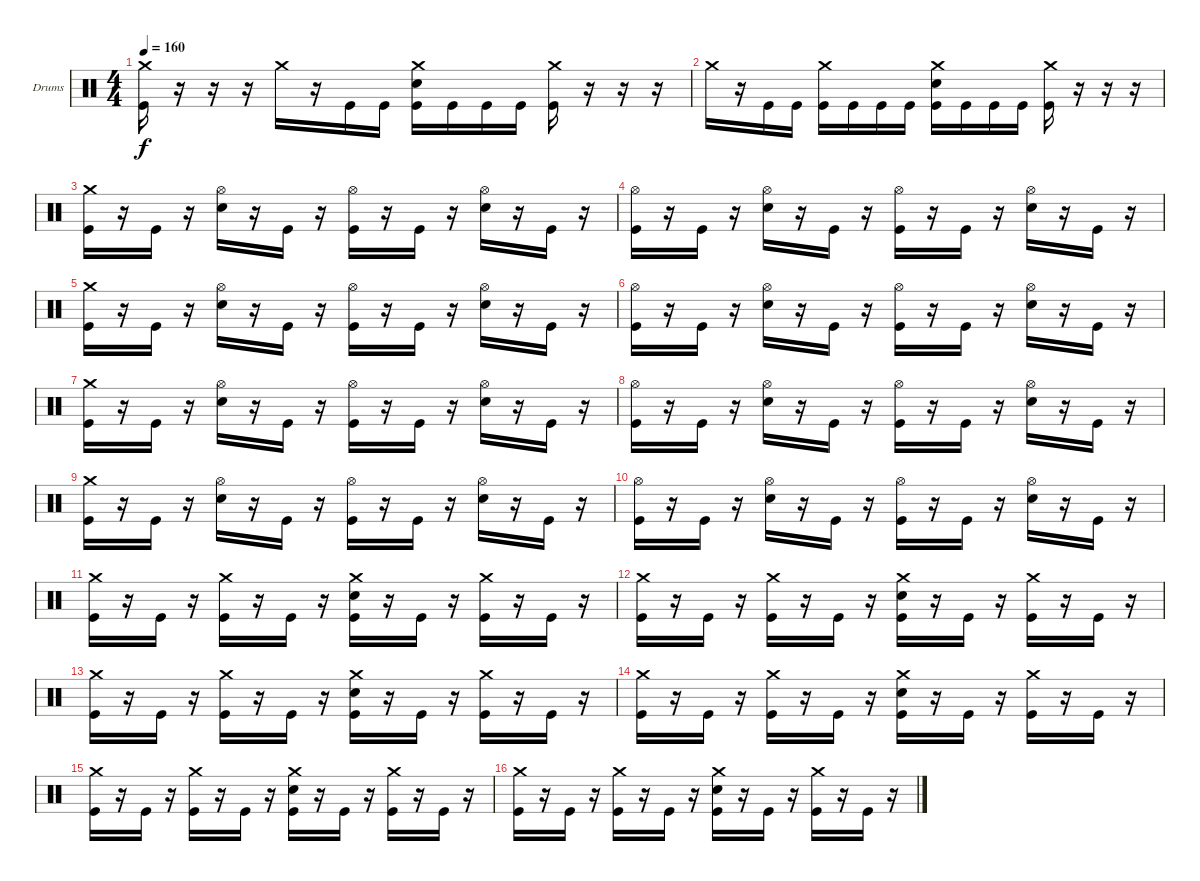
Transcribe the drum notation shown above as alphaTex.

\bracketExtendMode groupsimilarinstruments
\firstSystemTrackNameOrientation horizontal
\otherSystemsTrackNameOrientation horizontal
\track ("Drumkit" "Drums") {instrument percussion}
\staff {score}
\articulation defaults
\ts (4 4)
\tempo 160
\clef neutral
\ks c
("Crash medium (hit)" "Kick (hit)").16{dy f} r.16 r.16 r.16 "Crash medium (hit)".16 r.16 "Kick (hit)".16 "Kick (hit)".16 ("Crash medium (hit)" "Snare (hit) 2" "Kick (hit)").16 "Kick (hit)".16 "Kick (hit)".16 "Kick (hit)".16 ("Crash medium (hit)" "Kick (hit)").16 r.16 r.16 r.16 |
"Crash medium (hit)".16 r.16 "Kick (hit)".16 "Kick (hit)".16 ("Crash medium (hit)" "Kick (hit)").16 "Kick (hit)".16 "Kick (hit)".16 "Kick (hit)".16 ("Crash medium (hit)" "Snare (hit) 2" "Kick (hit)").16 "Kick (hit)".16 "Kick (hit)".16 "Kick (hit)".16 ("Crash medium (hit)" "Kick (hit)").16 r.16 r.16 r.16 |
("Crash medium (hit)" "Kick (hit)").16 r.16 "Kick (hit)".16 r.16 ("Hi-Hat (open)" "Snare (hit) 2").16 r.16 "Kick (hit)".16 r.16 ("Hi-Hat (open)" "Kick (hit)").16 r.16 "Kick (hit)".16 r.16 ("Hi-Hat (open)" "Snare (hit) 2").16 r.16 "Kick (hit)".16 r.16 |
("Hi-Hat (open)" "Kick (hit)").16 r.16 "Kick (hit)".16 r.16 ("Hi-Hat (open)" "Snare (hit) 2").16 r.16 "Kick (hit)".16 r.16 ("Hi-Hat (open)" "Kick (hit)").16 r.16 "Kick (hit)".16 r.16 ("Hi-Hat (open)" "Snare (hit) 2").16 r.16 "Kick (hit)".16 r.16 |
("Crash medium (hit)" "Kick (hit)").16 r.16 "Kick (hit)".16 r.16 ("Hi-Hat (open)" "Snare (hit) 2").16 r.16 "Kick (hit)".16 r.16 ("Hi-Hat (open)" "Kick (hit)").16 r.16 "Kick (hit)".16 r.16 ("Hi-Hat (open)" "Snare (hit) 2").16 r.16 "Kick (hit)".16 r.16 |
("Hi-Hat (open)" "Kick (hit)").16 r.16 "Kick (hit)".16 r.16 ("Hi-Hat (open)" "Snare (hit) 2").16 r.16 "Kick (hit)".16 r.16 ("Hi-Hat (open)" "Kick (hit)").16 r.16 "Kick (hit)".16 r.16 ("Hi-Hat (open)" "Snare (hit) 2").16 r.16 "Kick (hit)".16 r.16 |
("Crash medium (hit)" "Kick (hit)").16 r.16 "Kick (hit)".16 r.16 ("Hi-Hat (open)" "Snare (hit) 2").16 r.16 "Kick (hit)".16 r.16 ("Hi-Hat (open)" "Kick (hit)").16 r.16 "Kick (hit)".16 r.16 ("Hi-Hat (open)" "Snare (hit) 2").16 r.16 "Kick (hit)".16 r.16 |
("Hi-Hat (open)" "Kick (hit)").16 r.16 "Kick (hit)".16 r.16 ("Hi-Hat (open)" "Snare (hit) 2").16 r.16 "Kick (hit)".16 r.16 ("Hi-Hat (open)" "Kick (hit)").16 r.16 "Kick (hit)".16 r.16 ("Hi-Hat (open)" "Snare (hit) 2").16 r.16 "Kick (hit)".16 r.16 |
("Crash medium (hit)" "Kick (hit)").16 r.16 "Kick (hit)".16 r.16 ("Hi-Hat (open)" "Snare (hit) 2").16 r.16 "Kick (hit)".16 r.16 ("Hi-Hat (open)" "Kick (hit)").16 r.16 "Kick (hit)".16 r.16 ("Hi-Hat (open)" "Snare (hit) 2").16 r.16 "Kick (hit)".16 r.16 |
("Hi-Hat (open)" "Kick (hit)").16 r.16 "Kick (hit)".16 r.16 ("Hi-Hat (open)" "Snare (hit) 2").16 r.16 "Kick (hit)".16 r.16 ("Hi-Hat (open)" "Kick (hit)").16 r.16 "Kick (hit)".16 r.16 ("Hi-Hat (open)" "Snare (hit) 2").16 r.16 "Kick (hit)".16 r.16 |
("Crash medium (hit)" "Kick (hit)").16 r.16 "Kick (hit)".16 r.16 ("Crash medium (hit)" "Kick (hit)").16 r.16 "Kick (hit)".16 r.16 ("Crash medium (hit)" "Snare (hit) 2" "Kick (hit)").16 r.16 "Kick (hit)".16 r.16 ("Crash medium (hit)" "Kick (hit)").16 r.16 "Kick (hit)".16 r.16 |
("Crash medium (hit)" "Kick (hit)").16 r.16 "Kick (hit)".16 r.16 ("Crash medium (hit)" "Kick (hit)").16 r.16 "Kick (hit)".16 r.16 ("Crash medium (hit)" "Snare (hit) 2" "Kick (hit)").16 r.16 "Kick (hit)".16 r.16 ("Crash medium (hit)" "Kick (hit)").16 r.16 "Kick (hit)".16 r.16 |
("Crash medium (hit)" "Kick (hit)").16 r.16 "Kick (hit)".16 r.16 ("Crash medium (hit)" "Kick (hit)").16 r.16 "Kick (hit)".16 r.16 ("Crash medium (hit)" "Snare (hit) 2" "Kick (hit)").16 r.16 "Kick (hit)".16 r.16 ("Crash medium (hit)" "Kick (hit)").16 r.16 "Kick (hit)".16 r.16 |
("Crash medium (hit)" "Kick (hit)").16 r.16 "Kick (hit)".16 r.16 ("Crash medium (hit)" "Kick (hit)").16 r.16 "Kick (hit)".16 r.16 ("Crash medium (hit)" "Snare (hit) 2" "Kick (hit)").16 r.16 "Kick (hit)".16 r.16 ("Crash medium (hit)" "Kick (hit)").16 r.16 "Kick (hit)".16 r.16 |
("Crash medium (hit)" "Kick (hit)").16 r.16 "Kick (hit)".16 r.16 ("Crash medium (hit)" "Kick (hit)").16 r.16 "Kick (hit)".16 r.16 ("Crash medium (hit)" "Snare (hit) 2" "Kick (hit)").16 r.16 "Kick (hit)".16 r.16 ("Crash medium (hit)" "Kick (hit)").16 r.16 "Kick (hit)".16 r.16 |
("Crash medium (hit)" "Kick (hit)").16 r.16 "Kick (hit)".16 r.16 ("Crash medium (hit)" "Kick (hit)").16 r.16 "Kick (hit)".16 r.16 ("Crash medium (hit)" "Snare (hit) 2" "Kick (hit)").16 r.16 "Kick (hit)".16 r.16 ("Crash medium (hit)" "Kick (hit)").16 r.16 "Kick (hit)".16 r.16
